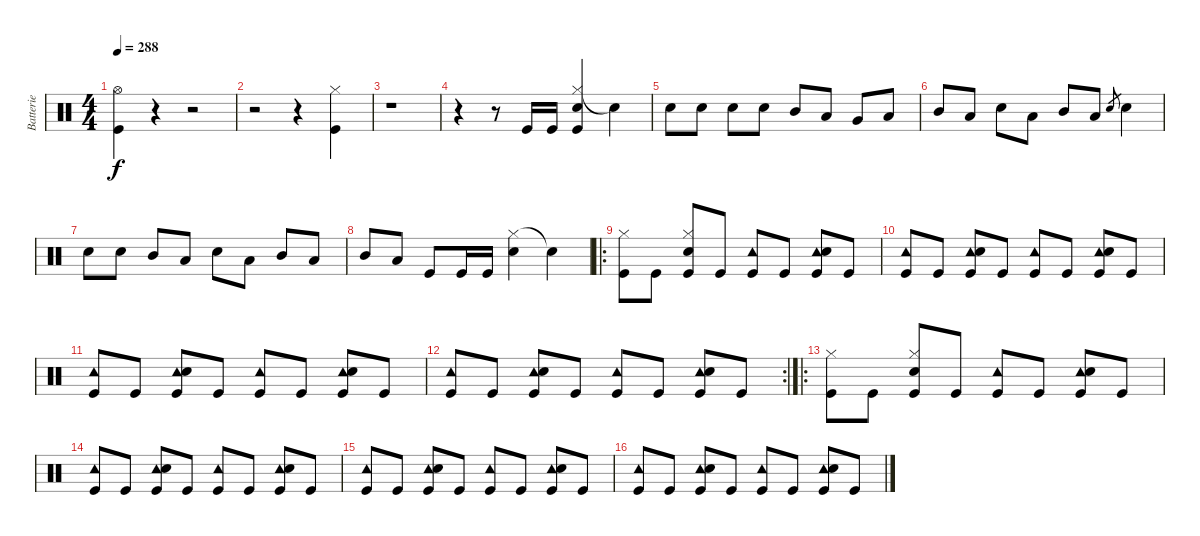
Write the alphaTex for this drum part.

\track ("Batterie" "Batterie") {instrument percussion}
\staff {score}
\articulation defaults
\ts (4 4)
\tempo 288
\clef neutral
\ks c
("Hi-Hat (open)" "Kick (hit)").4{dy f} r.4 r.2 |
r.2 r.4 ("Hi-Hat (closed)" "Kick (hit)").4 |
r.1 |
r.4 r.8 "Kick (hit)".16 "Kick (hit)".16 ("Hi-Hat (closed)" "Snare (hit) 2" "Kick (hit)").4 "Snare (hit)"{t}.4 |
"Snare (hit) 2".8 "Snare (hit) 2".8 "Snare (hit) 2".8 "Snare (hit) 2".8 "Mid Tom (hit)".8 "Low Tom (hit)".8 "Very Low Tom (hit)".8 "Low Tom (hit)".8 |
"Mid Tom (hit)".8 "Low Tom (hit)".8 "Snare (hit) 2".8 "Low Tom (hit)".8 "Mid Tom (hit)".8 "Low Tom (hit)".8 "Snare (hit) 2".8{gr} "Snare (hit) 2".4 |
"Snare (hit) 2".8 "Snare (hit) 2".8 "Mid Tom (hit)".8 "Low Tom (hit)".8 "Snare (hit) 2".8 "Low Tom (hit)".8 "Mid Tom (hit)".8 "Low Tom (hit)".8 |
"Mid Tom (hit)".8 "Low Tom (hit)".8 "Kick (hit)".8 "Kick (hit)".16 "Kick (hit)".16 ("Hi-Hat (closed)" "Snare (hit) 2").4 "Snare (hit)"{t}.4 |
\ro
("Hi-Hat (closed)" "Kick (hit)").8 "Kick (hit)".8 ("Hi-Hat (closed)" "Snare (hit) 2" "Kick (hit)").8 "Kick (hit)".8 ("Tambourine (hit)" "Kick (hit)").8 "Kick (hit)".8 ("Tambourine (hit)" "Snare (hit) 2" "Kick (hit)").8 "Kick (hit)".8 |
("Tambourine (hit)" "Kick (hit)").8 "Kick (hit)".8 ("Tambourine (hit)" "Snare (hit) 2" "Kick (hit)").8 "Kick (hit)".8 ("Tambourine (hit)" "Kick (hit)").8 "Kick (hit)".8 ("Tambourine (hit)" "Snare (hit) 2" "Kick (hit)").8 "Kick (hit)".8 |
("Tambourine (hit)" "Kick (hit)").8 "Kick (hit)".8 ("Tambourine (hit)" "Snare (hit) 2" "Kick (hit)").8 "Kick (hit)".8 ("Tambourine (hit)" "Kick (hit)").8 "Kick (hit)".8 ("Tambourine (hit)" "Snare (hit) 2" "Kick (hit)").8 "Kick (hit)".8 |
\rc 2
("Tambourine (hit)" "Kick (hit)").8 "Kick (hit)".8 ("Tambourine (hit)" "Snare (hit) 2" "Kick (hit)").8 "Kick (hit)".8 ("Tambourine (hit)" "Kick (hit)").8 "Kick (hit)".8 ("Tambourine (hit)" "Snare (hit) 2" "Kick (hit)").8 "Kick (hit)".8 |
\ro
("Hi-Hat (closed)" "Kick (hit)").8 "Kick (hit)".8 ("Hi-Hat (closed)" "Snare (hit) 2" "Kick (hit)").8 "Kick (hit)".8 ("Tambourine (hit)" "Kick (hit)").8 "Kick (hit)".8 ("Tambourine (hit)" "Snare (hit) 2" "Kick (hit)").8 "Kick (hit)".8 |
("Tambourine (hit)" "Kick (hit)").8 "Kick (hit)".8 ("Tambourine (hit)" "Snare (hit) 2" "Kick (hit)").8 "Kick (hit)".8 ("Tambourine (hit)" "Kick (hit)").8 "Kick (hit)".8 ("Tambourine (hit)" "Snare (hit) 2" "Kick (hit)").8 "Kick (hit)".8 |
("Tambourine (hit)" "Kick (hit)").8 "Kick (hit)".8 ("Tambourine (hit)" "Snare (hit) 2" "Kick (hit)").8 "Kick (hit)".8 ("Tambourine (hit)" "Kick (hit)").8 "Kick (hit)".8 ("Tambourine (hit)" "Snare (hit) 2" "Kick (hit)").8 "Kick (hit)".8 |
("Tambourine (hit)" "Kick (hit)").8 "Kick (hit)".8 ("Tambourine (hit)" "Snare (hit) 2" "Kick (hit)").8 "Kick (hit)".8 ("Tambourine (hit)" "Kick (hit)").8 "Kick (hit)".8 ("Tambourine (hit)" "Snare (hit) 2" "Kick (hit)").8 "Kick (hit)".8
